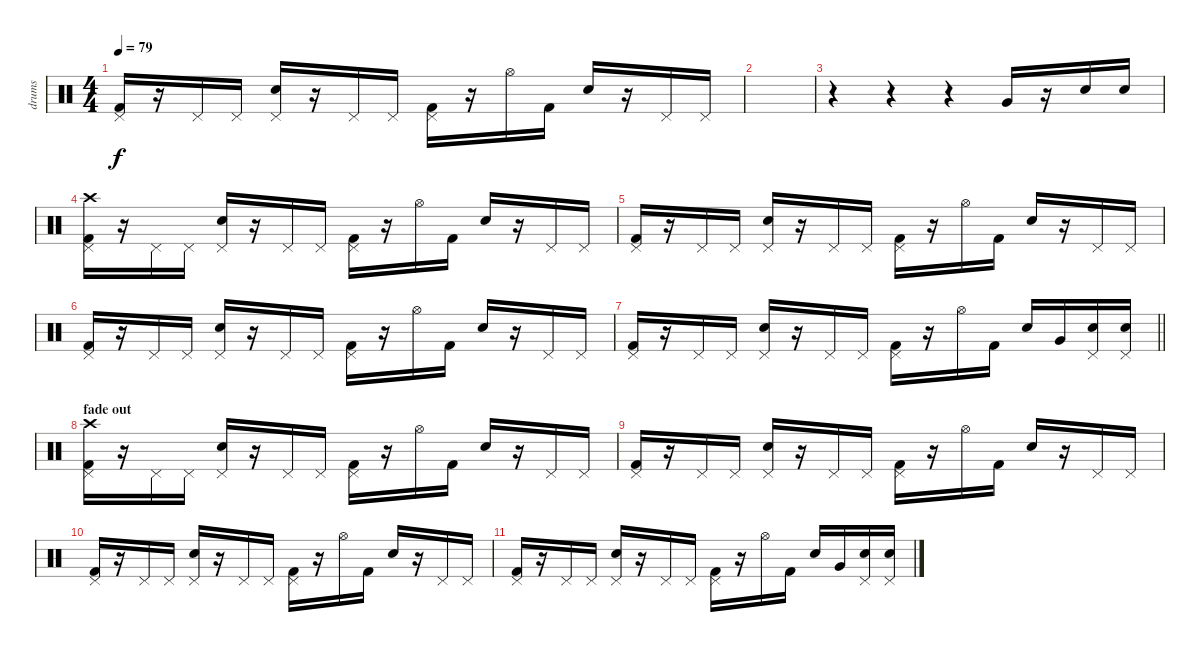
\track ("drums" "drums") {instrument percussion}
\staff {score}
\articulation defaults
\ts (4 4)
\tempo 79
\clef neutral
\ks c
("Kick (hit) 2" "Pedal Hi-Hat (hit)").16{dy f} r.16 "Pedal Hi-Hat (hit)".16 "Pedal Hi-Hat (hit)".16 ("Electric Snare (hit)" "Pedal Hi-Hat (hit)").16 r.16 "Pedal Hi-Hat (hit)".16 "Pedal Hi-Hat (hit)".16 ("Kick (hit) 2" "Pedal Hi-Hat (hit)").16 r.16 "Hi-Hat (open)".16 "Kick (hit) 2".16 "Electric Snare (hit)".16 r.16 "Pedal Hi-Hat (hit)".16 "Pedal Hi-Hat (hit)".16 |
|
r.4 r.4 r.4 "Very Low Tom (hit)".16 r.16 "Electric Snare (hit)".16 "Electric Snare (hit)".16 |
("Kick (hit) 2" "Pedal Hi-Hat (hit)" "Crash high (hit)").16 r.16 "Pedal Hi-Hat (hit)".16 "Pedal Hi-Hat (hit)".16 ("Electric Snare (hit)" "Pedal Hi-Hat (hit)").16 r.16 "Pedal Hi-Hat (hit)".16 "Pedal Hi-Hat (hit)".16 ("Kick (hit) 2" "Pedal Hi-Hat (hit)").16 r.16 "Hi-Hat (open)".16 "Kick (hit) 2".16 "Electric Snare (hit)".16 r.16 "Pedal Hi-Hat (hit)".16 "Pedal Hi-Hat (hit)".16 |
("Kick (hit) 2" "Pedal Hi-Hat (hit)").16 r.16 "Pedal Hi-Hat (hit)".16 "Pedal Hi-Hat (hit)".16 ("Electric Snare (hit)" "Pedal Hi-Hat (hit)").16 r.16 "Pedal Hi-Hat (hit)".16 "Pedal Hi-Hat (hit)".16 ("Kick (hit) 2" "Pedal Hi-Hat (hit)").16 r.16 "Hi-Hat (open)".16 "Kick (hit) 2".16 "Electric Snare (hit)".16 r.16 "Pedal Hi-Hat (hit)".16 "Pedal Hi-Hat (hit)".16 |
("Kick (hit) 2" "Pedal Hi-Hat (hit)").16 r.16 "Pedal Hi-Hat (hit)".16 "Pedal Hi-Hat (hit)".16 ("Electric Snare (hit)" "Pedal Hi-Hat (hit)").16 r.16 "Pedal Hi-Hat (hit)".16 "Pedal Hi-Hat (hit)".16 ("Kick (hit) 2" "Pedal Hi-Hat (hit)").16 r.16 "Hi-Hat (open)".16 "Kick (hit) 2".16 "Electric Snare (hit)".16 r.16 "Pedal Hi-Hat (hit)".16 "Pedal Hi-Hat (hit)".16 |
\barLineRight lightlight
("Kick (hit) 2" "Pedal Hi-Hat (hit)").16 r.16 "Pedal Hi-Hat (hit)".16 "Pedal Hi-Hat (hit)".16 ("Electric Snare (hit)" "Pedal Hi-Hat (hit)").16 r.16 "Pedal Hi-Hat (hit)".16 "Pedal Hi-Hat (hit)".16 ("Kick (hit) 2" "Pedal Hi-Hat (hit)").16 r.16 "Hi-Hat (open)".16 "Kick (hit) 2".16 "Electric Snare (hit)".16 "Very Low Tom (hit)".16 ("Electric Snare (hit)" "Pedal Hi-Hat (hit)").16 ("Electric Snare (hit)" "Pedal Hi-Hat (hit)").16 |
\section ("" "fade out")
("Kick (hit) 2" "Pedal Hi-Hat (hit)" "Crash high (hit)").16{volume 0} r.16 "Pedal Hi-Hat (hit)".16 "Pedal Hi-Hat (hit)".16 ("Electric Snare (hit)" "Pedal Hi-Hat (hit)").16 r.16 "Pedal Hi-Hat (hit)".16 "Pedal Hi-Hat (hit)".16 ("Kick (hit) 2" "Pedal Hi-Hat (hit)").16 r.16 "Hi-Hat (open)".16 "Kick (hit) 2".16 "Electric Snare (hit)".16 r.16 "Pedal Hi-Hat (hit)".16 "Pedal Hi-Hat (hit)".16 |
("Kick (hit) 2" "Pedal Hi-Hat (hit)").16 r.16 "Pedal Hi-Hat (hit)".16 "Pedal Hi-Hat (hit)".16 ("Electric Snare (hit)" "Pedal Hi-Hat (hit)").16 r.16 "Pedal Hi-Hat (hit)".16 "Pedal Hi-Hat (hit)".16 ("Kick (hit) 2" "Pedal Hi-Hat (hit)").16 r.16 "Hi-Hat (open)".16 "Kick (hit) 2".16 "Electric Snare (hit)".16 r.16 "Pedal Hi-Hat (hit)".16 "Pedal Hi-Hat (hit)".16 |
("Kick (hit) 2" "Pedal Hi-Hat (hit)").16 r.16 "Pedal Hi-Hat (hit)".16 "Pedal Hi-Hat (hit)".16 ("Electric Snare (hit)" "Pedal Hi-Hat (hit)").16 r.16 "Pedal Hi-Hat (hit)".16 "Pedal Hi-Hat (hit)".16 ("Kick (hit) 2" "Pedal Hi-Hat (hit)").16 r.16 "Hi-Hat (open)".16 "Kick (hit) 2".16 "Electric Snare (hit)".16 r.16 "Pedal Hi-Hat (hit)".16 "Pedal Hi-Hat (hit)".16 |
("Kick (hit) 2" "Pedal Hi-Hat (hit)").16 r.16 "Pedal Hi-Hat (hit)".16 "Pedal Hi-Hat (hit)".16 ("Electric Snare (hit)" "Pedal Hi-Hat (hit)").16 r.16 "Pedal Hi-Hat (hit)".16 "Pedal Hi-Hat (hit)".16 ("Kick (hit) 2" "Pedal Hi-Hat (hit)").16 r.16 "Hi-Hat (open)".16 "Kick (hit) 2".16 "Electric Snare (hit)".16 "Very Low Tom (hit)".16 ("Electric Snare (hit)" "Pedal Hi-Hat (hit)").16 ("Electric Snare (hit)" "Pedal Hi-Hat (hit)").16
